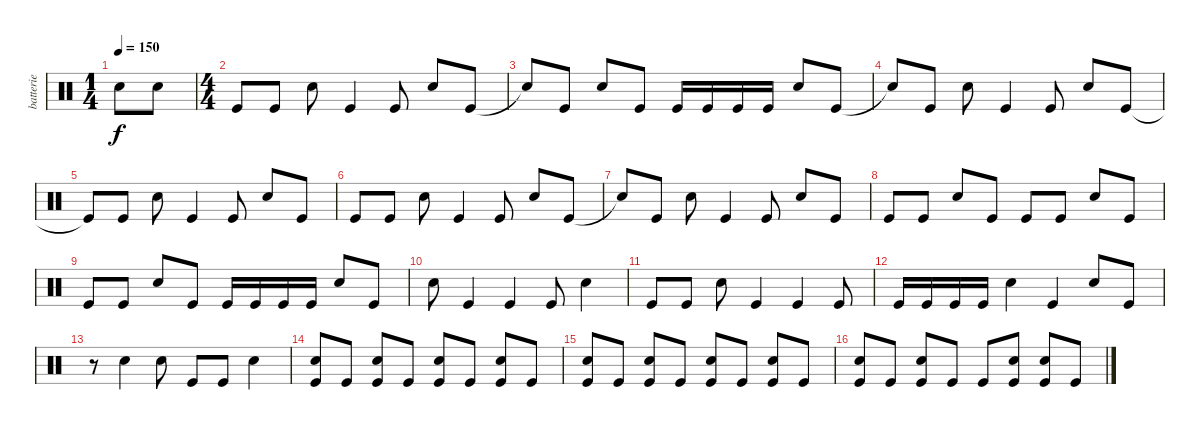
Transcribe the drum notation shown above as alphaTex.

\track ("batterie" "batterie") {instrument percussion}
\staff {score}
\articulation defaults
\ts (1 4)
\tempo 150
\clef neutral
\ks c "Snare (hit) 2".8{dy f} "Snare (hit) 2".8
|
\ts (4 4)
"Kick (hit)".8 "Kick (hit)".8 "Snare (hit) 2".8 "Kick (hit)".4 "Kick (hit)".8 "Snare (hit) 2".8 "Kick (hit)".8 |
"Snare (hit)"{t}.8 "Kick (hit)".8 "Snare (hit) 2".8 "Kick (hit)".8 "Kick (hit)".16 "Kick (hit)".16 "Kick (hit)".16 "Kick (hit)".16 "Snare (hit) 2".8 "Kick (hit)".8 |
"Snare (hit)"{t}.8 "Kick (hit)".8 "Snare (hit) 2".8 "Kick (hit)".4 "Kick (hit)".8 "Snare (hit) 2".8 "Kick (hit)".8 |
"Kick (hit)"{t}.8 "Kick (hit)".8 "Snare (hit) 2".8 "Kick (hit)".4 "Kick (hit)".8 "Snare (hit) 2".8 "Kick (hit)".8 |
"Kick (hit)".8 "Kick (hit)".8 "Snare (hit) 2".8 "Kick (hit)".4 "Kick (hit)".8 "Snare (hit) 2".8 "Kick (hit)".8 |
"Snare (hit)"{t}.8 "Kick (hit)".8 "Snare (hit) 2".8 "Kick (hit)".4 "Kick (hit)".8 "Snare (hit) 2".8 "Kick (hit)".8 |
"Kick (hit)".8 "Kick (hit)".8 "Snare (hit) 2".8 "Kick (hit)".8 "Kick (hit)".8 "Kick (hit)".8 "Snare (hit) 2".8 "Kick (hit)".8 |
"Kick (hit)".8 "Kick (hit)".8 "Snare (hit) 2".8 "Kick (hit)".8 "Kick (hit)".16 "Kick (hit)".16 "Kick (hit)".16 "Kick (hit)".16 "Snare (hit) 2".8 "Kick (hit)".8 |
"Snare (hit) 2".8 "Kick (hit)".4 "Kick (hit)".4 "Kick (hit)".8 "Snare (hit) 2".4 |
"Kick (hit)".8 "Kick (hit)".8 "Snare (hit) 2".8 "Kick (hit)".4 "Kick (hit)".4 "Kick (hit)".8 |
"Kick (hit)".16 "Kick (hit)".16 "Kick (hit)".16 "Kick (hit)".16 "Snare (hit) 2".4 "Kick (hit)".4 "Snare (hit) 2".8 "Kick (hit)".8 |
r.8 "Snare (hit) 2".4 "Snare (hit) 2".8 "Kick (hit)".8 "Kick (hit)".8 "Snare (hit) 2".4 |
("Snare (hit) 2" "Kick (hit)").8 "Kick (hit)".8 ("Snare (hit) 2" "Kick (hit)").8 "Kick (hit)".8 ("Snare (hit) 2" "Kick (hit)").8 "Kick (hit)".8 ("Snare (hit) 2" "Kick (hit)").8 "Kick (hit)".8 |
("Snare (hit) 2" "Kick (hit)").8 "Kick (hit)".8 ("Snare (hit) 2" "Kick (hit)").8 "Kick (hit)".8 ("Snare (hit) 2" "Kick (hit)").8 "Kick (hit)".8 ("Snare (hit) 2" "Kick (hit)").8 "Kick (hit)".8 |
("Snare (hit) 2" "Kick (hit)").8 "Kick (hit)".8 ("Snare (hit) 2" "Kick (hit)").8 "Kick (hit)".8 "Kick (hit)".8 ("Snare (hit) 2" "Kick (hit)").8 ("Snare (hit) 2" "Kick (hit)").8 "Kick (hit)".8
